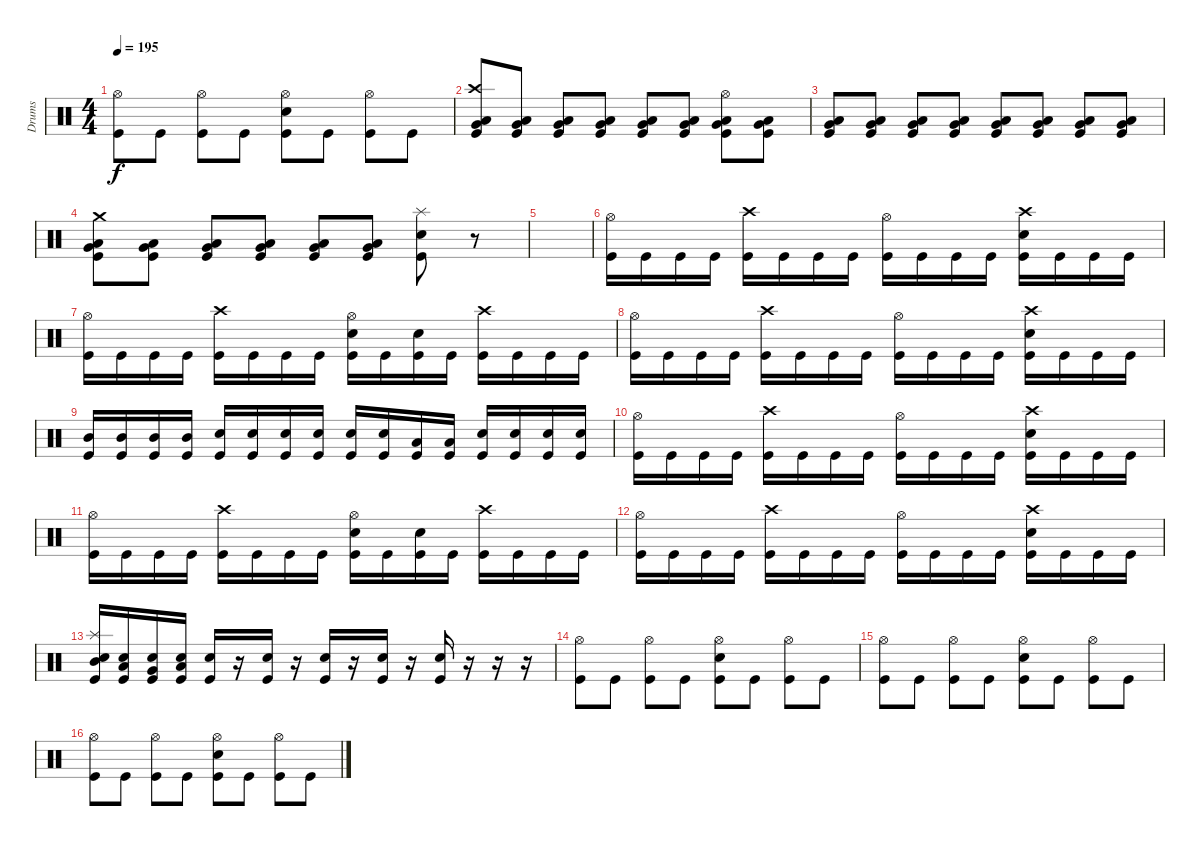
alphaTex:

\track ("Drums" "Drums") {instrument percussion}
\staff {score}
\articulation defaults
\ts (4 4)
\tempo 195
\clef neutral
\ks c
("Hi-Hat (open)" "Kick (hit)").8{dy f} "Kick (hit)".8 ("Hi-Hat (open)" "Kick (hit)").8 "Kick (hit)".8 ("Hi-Hat (open)" "Electric Snare (hit)" "Kick (hit)").8 "Kick (hit)".8 ("Hi-Hat (open)" "Kick (hit)").8 "Kick (hit)".8 |
("Crash high (hit)" "Very Low Tom (hit)" "Low Tom (hit)" "Kick (hit)").8 ("Very Low Tom (hit)" "Low Tom (hit)" "Kick (hit)").8 ("Very Low Tom (hit)" "Low Tom (hit)" "Kick (hit)").8 ("Very Low Tom (hit)" "Low Tom (hit)" "Kick (hit)").8 ("Very Low Tom (hit)" "Low Tom (hit)" "Kick (hit)").8 ("Very Low Tom (hit)" "Low Tom (hit)" "Kick (hit)").8 ("Hi-Hat (open)" "Very Low Tom (hit)" "Low Tom (hit)" "Kick (hit)").8 ("Very Low Tom (hit)" "Low Tom (hit)" "Kick (hit)").8 |
("Very Low Tom (hit)" "Low Tom (hit)" "Kick (hit)").8 ("Very Low Tom (hit)" "Low Tom (hit)" "Kick (hit)").8 ("Very Low Tom (hit)" "Low Tom (hit)" "Kick (hit)").8 ("Very Low Tom (hit)" "Low Tom (hit)" "Kick (hit)").8 ("Very Low Tom (hit)" "Low Tom (hit)" "Kick (hit)").8 ("Very Low Tom (hit)" "Low Tom (hit)" "Kick (hit)").8 ("Very Low Tom (hit)" "Low Tom (hit)" "Kick (hit)").8 ("Very Low Tom (hit)" "Low Tom (hit)" "Kick (hit)").8 |
("Crash medium (hit)" "Very Low Tom (hit)" "Low Tom (hit)" "Kick (hit)").8 ("Very Low Tom (hit)" "Low Tom (hit)" "Kick (hit)").8 ("Very Low Tom (hit)" "Low Tom (hit)" "Kick (hit)").8 ("Very Low Tom (hit)" "Low Tom (hit)" "Kick (hit)").8 ("Very Low Tom (hit)" "Low Tom (hit)" "Kick (hit)").8 ("Very Low Tom (hit)" "Low Tom (hit)" "Kick (hit)").8 ("Splash (hit)" "Electric Snare (hit)" "Kick (hit)").8 r.8 |
|
("Hi-Hat (open)" "Kick (hit)").16 "Kick (hit)".16 "Kick (hit)".16 "Kick (hit)".16 ("Crash high (hit)" "Kick (hit)").16 "Kick (hit)".16 "Kick (hit)".16 "Kick (hit)".16 ("Hi-Hat (open)" "Kick (hit)").16 "Kick (hit)".16 "Kick (hit)".16 "Kick (hit)".16 ("Crash high (hit)" "Electric Snare (hit)" "Kick (hit)").16 "Kick (hit)".16 "Kick (hit)".16 "Kick (hit)".16 |
("Hi-Hat (open)" "Kick (hit)").16 "Kick (hit)".16 "Kick (hit)".16 "Kick (hit)".16 ("Crash high (hit)" "Kick (hit)").16 "Kick (hit)".16 "Kick (hit)".16 "Kick (hit)".16 ("Hi-Hat (open)" "Electric Snare (hit)" "Kick (hit)").16 "Kick (hit)".16 ("Electric Snare (hit)" "Kick (hit)").16 "Kick (hit)".16 ("Crash high (hit)" "Kick (hit)").16 "Kick (hit)".16 "Kick (hit)".16 "Kick (hit)".16 |
("Hi-Hat (open)" "Kick (hit)").16 "Kick (hit)".16 "Kick (hit)".16 "Kick (hit)".16 ("Crash high (hit)" "Kick (hit)").16 "Kick (hit)".16 "Kick (hit)".16 "Kick (hit)".16 ("Hi-Hat (open)" "Kick (hit)").16 "Kick (hit)".16 "Kick (hit)".16 "Kick (hit)".16 ("Crash high (hit)" "Electric Snare (hit)" "Kick (hit)").16 "Kick (hit)".16 "Kick (hit)".16 "Kick (hit)".16 |
("Mid Tom (hit)" "Kick (hit)").16 ("Mid Tom (hit)" "Kick (hit)").16 ("Mid Tom (hit)" "Kick (hit)").16 ("Mid Tom (hit)" "Kick (hit)").16 ("Electric Snare (hit)" "Kick (hit)").16 ("Electric Snare (hit)" "Kick (hit)").16 ("Electric Snare (hit)" "Kick (hit)").16 ("Electric Snare (hit)" "Kick (hit)").16 ("Electric Snare (hit)" "Kick (hit)").16 ("Electric Snare (hit)" "Kick (hit)").16 ("Low Tom (hit)" "Kick (hit)").16 ("Low Tom (hit)" "Kick (hit)").16 ("Electric Snare (hit)" "Kick (hit)").16 ("Electric Snare (hit)" "Kick (hit)").16 ("Electric Snare (hit)" "Kick (hit)").16 ("Electric Snare (hit)" "Kick (hit)").16 |
("Hi-Hat (open)" "Kick (hit)").16 "Kick (hit)".16 "Kick (hit)".16 "Kick (hit)".16 ("Crash high (hit)" "Kick (hit)").16 "Kick (hit)".16 "Kick (hit)".16 "Kick (hit)".16 ("Hi-Hat (open)" "Kick (hit)").16 "Kick (hit)".16 "Kick (hit)".16 "Kick (hit)".16 ("Crash high (hit)" "Electric Snare (hit)" "Kick (hit)").16 "Kick (hit)".16 "Kick (hit)".16 "Kick (hit)".16 |
("Hi-Hat (open)" "Kick (hit)").16 "Kick (hit)".16 "Kick (hit)".16 "Kick (hit)".16 ("Crash high (hit)" "Kick (hit)").16 "Kick (hit)".16 "Kick (hit)".16 "Kick (hit)".16 ("Hi-Hat (open)" "Electric Snare (hit)" "Kick (hit)").16 "Kick (hit)".16 ("Electric Snare (hit)" "Kick (hit)").16 "Kick (hit)".16 ("Crash high (hit)" "Kick (hit)").16 "Kick (hit)".16 "Kick (hit)".16 "Kick (hit)".16 |
("Hi-Hat (open)" "Kick (hit)").16 "Kick (hit)".16 "Kick (hit)".16 "Kick (hit)".16 ("Crash high (hit)" "Kick (hit)").16 "Kick (hit)".16 "Kick (hit)".16 "Kick (hit)".16 ("Hi-Hat (open)" "Kick (hit)").16 "Kick (hit)".16 "Kick (hit)".16 "Kick (hit)".16 ("Crash high (hit)" "Electric Snare (hit)" "Kick (hit)").16 "Kick (hit)".16 "Kick (hit)".16 "Kick (hit)".16 |
("Splash (hit)" "Mid Tom (hit)" "Electric Snare (hit)" "Kick (hit)").16 ("Low Tom (hit)" "Electric Snare (hit)" "Kick (hit)").16 ("Very Low Tom (hit)" "Electric Snare (hit)" "Kick (hit)").16 ("Low Floor Tom (hit)" "Electric Snare (hit)" "Kick (hit)").16 ("Electric Snare (hit)" "Kick (hit)").16 r.16 ("Electric Snare (hit)" "Kick (hit)").16 r.16 ("Electric Snare (hit)" "Kick (hit)").16 r.16 ("Electric Snare (hit)" "Kick (hit)").16 r.16 ("Electric Snare (hit)" "Kick (hit)").16 r.16 r.16 r.16 |
("Hi-Hat (open)" "Kick (hit)").8 "Kick (hit)".8 ("Hi-Hat (open)" "Kick (hit)").8 "Kick (hit)".8 ("Hi-Hat (open)" "Electric Snare (hit)" "Kick (hit)").8 "Kick (hit)".8 ("Hi-Hat (open)" "Kick (hit)").8 "Kick (hit)".8 |
("Hi-Hat (open)" "Kick (hit)").8 "Kick (hit)".8 ("Hi-Hat (open)" "Kick (hit)").8 "Kick (hit)".8 ("Hi-Hat (open)" "Electric Snare (hit)" "Kick (hit)").8 "Kick (hit)".8 ("Hi-Hat (open)" "Kick (hit)").8 "Kick (hit)".8 |
("Hi-Hat (open)" "Kick (hit)").8 "Kick (hit)".8 ("Hi-Hat (open)" "Kick (hit)").8 "Kick (hit)".8 ("Hi-Hat (open)" "Electric Snare (hit)" "Kick (hit)").8 "Kick (hit)".8 ("Hi-Hat (open)" "Kick (hit)").8 "Kick (hit)".8
